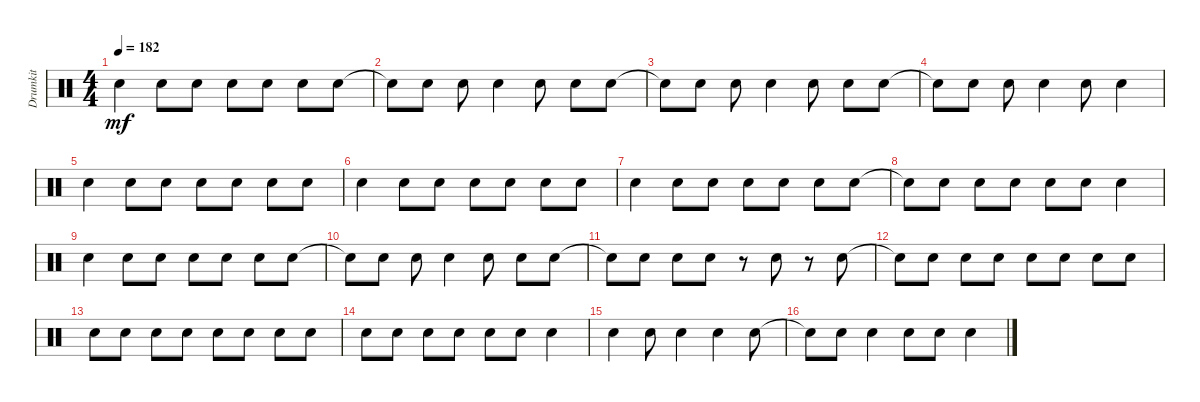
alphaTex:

\track ("Drumkit" "Drumkit") {instrument percussion}
\staff {score}
\articulation defaults
\ts (4 4)
\tempo 182
\clef neutral
\ks c "Snare (hit)".4{dy mf} "Snare (hit)".8 "Snare (hit)".8 "Snare (hit)".8 "Snare (hit)".8 "Snare (hit)".8 "Snare (hit)".8
|
"Snare (hit)"{t}.8 "Snare (hit)".8 "Snare (hit)".8 "Snare (hit)".4 "Snare (hit)".8 "Snare (hit)".8 "Snare (hit)".8 |
"Snare (hit)"{t}.8 "Snare (hit)".8 "Snare (hit)".8 "Snare (hit)".4 "Snare (hit)".8 "Snare (hit)".8 "Snare (hit)".8 |
"Snare (hit)"{t}.8 "Snare (hit)".8 "Snare (hit)".8 "Snare (hit)".4 "Snare (hit)".8 "Snare (hit)".4 |
"Snare (hit)".4 "Snare (hit)".8 "Snare (hit)".8 "Snare (hit)".8 "Snare (hit)".8 "Snare (hit)".8 "Snare (hit)".8 |
"Snare (hit)".4 "Snare (hit)".8 "Snare (hit)".8 "Snare (hit)".8 "Snare (hit)".8 "Snare (hit)".8 "Snare (hit)".8 |
"Snare (hit)".4 "Snare (hit)".8 "Snare (hit)".8 "Snare (hit)".8 "Snare (hit)".8 "Snare (hit)".8 "Snare (hit)".8 |
"Snare (hit)"{t}.8 "Snare (hit)".8 "Snare (hit)".8 "Snare (hit)".8 "Snare (hit)".8 "Snare (hit)".8 "Snare (hit)".4 |
"Snare (hit)".4 "Snare (hit)".8 "Snare (hit)".8 "Snare (hit)".8 "Snare (hit)".8 "Snare (hit)".8 "Snare (hit)".8 |
"Snare (hit)"{t}.8 "Snare (hit)".8 "Snare (hit)".8 "Snare (hit)".4 "Snare (hit)".8 "Snare (hit)".8 "Snare (hit)".8 |
"Snare (hit)"{t}.8 "Snare (hit)".8 "Snare (hit)".8 "Snare (hit)".8 r.8 "Snare (hit)".8 r.8 "Snare (hit)".8 |
"Snare (hit)"{t}.8 "Snare (hit)".8 "Snare (hit)".8 "Snare (hit)".8 "Snare (hit)".8 "Snare (hit)".8 "Snare (hit)".8 "Snare (hit)".8 |
"Snare (hit)".8 "Snare (hit)".8 "Snare (hit)".8 "Snare (hit)".8 "Snare (hit)".8 "Snare (hit)".8 "Snare (hit)".8 "Snare (hit)".8 |
"Snare (hit)".8 "Snare (hit)".8 "Snare (hit)".8 "Snare (hit)".8 "Snare (hit)".8 "Snare (hit)".8 "Snare (hit)".4 |
"Snare (hit)".4 "Snare (hit)".8 "Snare (hit)".4 "Snare (hit)".4 "Snare (hit)".8 |
"Snare (hit)"{t}.8 "Snare (hit)".8 "Snare (hit)".4 "Snare (hit)".8 "Snare (hit)".8 "Snare (hit)".4
